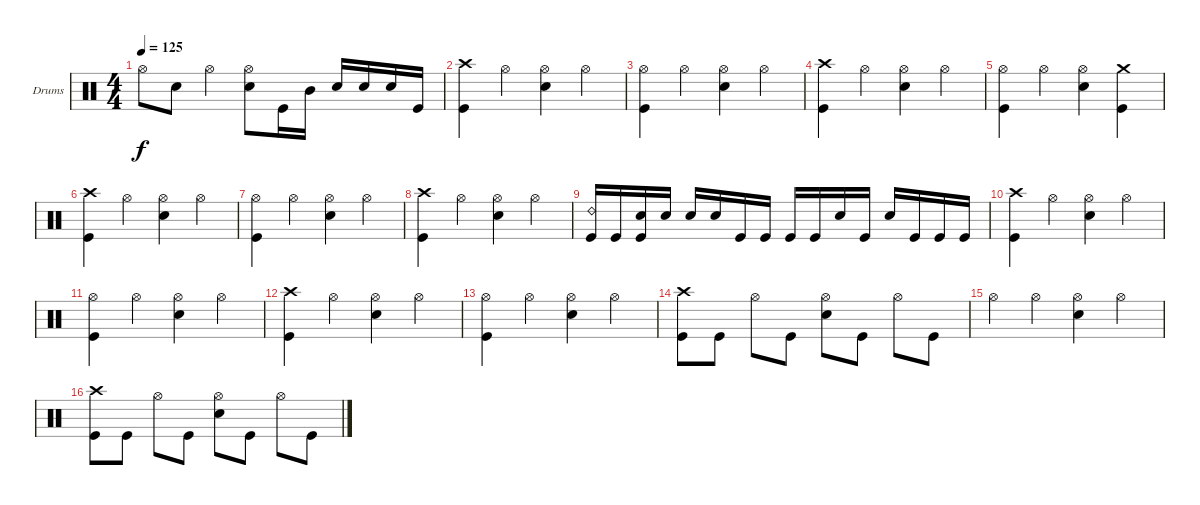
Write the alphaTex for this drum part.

\defaultSystemsLayout 4
\bracketExtendMode groupsimilarinstruments
\firstSystemTrackNameOrientation horizontal
\otherSystemsTrackNameOrientation horizontal
\track ("Drumkit" "Drums") {instrument percussion}
\staff {score}
\articulation defaults
\ts (4 4)
\tempo 125
\clef neutral
\ks c "Hi-Hat (open)".8{dy f} "Snare (hit) 2".8 "Hi-Hat (open)".4
("Hi-Hat (open)" "Snare (hit) 2").8 "Kick (hit)".16 "Mid Tom (hit)".16 "Snare (hit) 2".16 "Snare (hit) 2".16 "Snare (hit) 2".16 "Kick (hit)".16 |
("Kick (hit)" "Crash high (hit)").4 "Hi-Hat (open)".4 ("Snare (hit) 2" "Hi-Hat (open)").4 "Hi-Hat (open)".4 |
("Kick (hit)" "Hi-Hat (open)").4 "Hi-Hat (open)".4 ("Snare (hit) 2" "Hi-Hat (open)").4 "Hi-Hat (open)".4 |
("Kick (hit)" "Crash high (hit)").4 "Hi-Hat (open)".4 ("Snare (hit) 2" "Hi-Hat (open)").4 "Hi-Hat (open)".4 |
("Kick (hit)" "Hi-Hat (open)").4 "Hi-Hat (open)".4 ("Snare (hit) 2" "Hi-Hat (open)").4 ("Kick (hit)" "Crash medium (hit)").4 |
("Kick (hit)" "Crash high (hit)").4 "Hi-Hat (open)".4 ("Snare (hit) 2" "Hi-Hat (open)").4 "Hi-Hat (open)".4 |
("Kick (hit)" "Hi-Hat (open)").4 "Hi-Hat (open)".4 ("Snare (hit) 2" "Hi-Hat (open)").4 "Hi-Hat (open)".4 |
("Kick (hit)" "Crash high (hit)").4 "Hi-Hat (open)".4 ("Snare (hit) 2" "Hi-Hat (open)").4 "Hi-Hat (open)".4 |
("Kick (hit)" "Ride (bell) 2").16 "Kick (hit)".16 ("Snare (hit) 2" "Kick (hit)").16 "Snare (hit) 2".16 "Snare (hit) 2".16 "Snare (hit) 2".16 "Kick (hit)".16 "Kick (hit)".16 "Kick (hit)".16 "Kick (hit)".16 "Snare (hit) 2".16 "Kick (hit)".16 "Snare (hit) 2".16 "Kick (hit)".16 "Kick (hit)".16 "Kick (hit)".16 |
("Kick (hit)" "Crash high (hit)").4 "Hi-Hat (open)".4 ("Snare (hit) 2" "Hi-Hat (open)").4 "Hi-Hat (open)".4 |
("Kick (hit)" "Hi-Hat (open)").4 "Hi-Hat (open)".4 ("Snare (hit) 2" "Hi-Hat (open)").4 "Hi-Hat (open)".4 |
("Kick (hit)" "Crash high (hit)").4 "Hi-Hat (open)".4 ("Snare (hit) 2" "Hi-Hat (open)").4 "Hi-Hat (open)".4 |
("Kick (hit)" "Hi-Hat (open)").4 "Hi-Hat (open)".4 ("Snare (hit) 2" "Hi-Hat (open)").4 "Hi-Hat (open)".4 |
("Kick (hit)" "Crash high (hit)").8 "Kick (hit)".8 "Hi-Hat (open)".8 "Kick (hit)".8 ("Hi-Hat (open)" "Snare (hit) 2").8 "Kick (hit)".8 "Hi-Hat (open)".8 "Kick (hit)".8 |
"Hi-Hat (open)".4 "Hi-Hat (open)".4 ("Snare (hit) 2" "Hi-Hat (open)").4 "Hi-Hat (open)".4 |
("Kick (hit)" "Crash high (hit)").8 "Kick (hit)".8 "Hi-Hat (open)".8 "Kick (hit)".8 ("Hi-Hat (open)" "Snare (hit) 2").8 "Kick (hit)".8 "Hi-Hat (open)".8 "Kick (hit)".8
